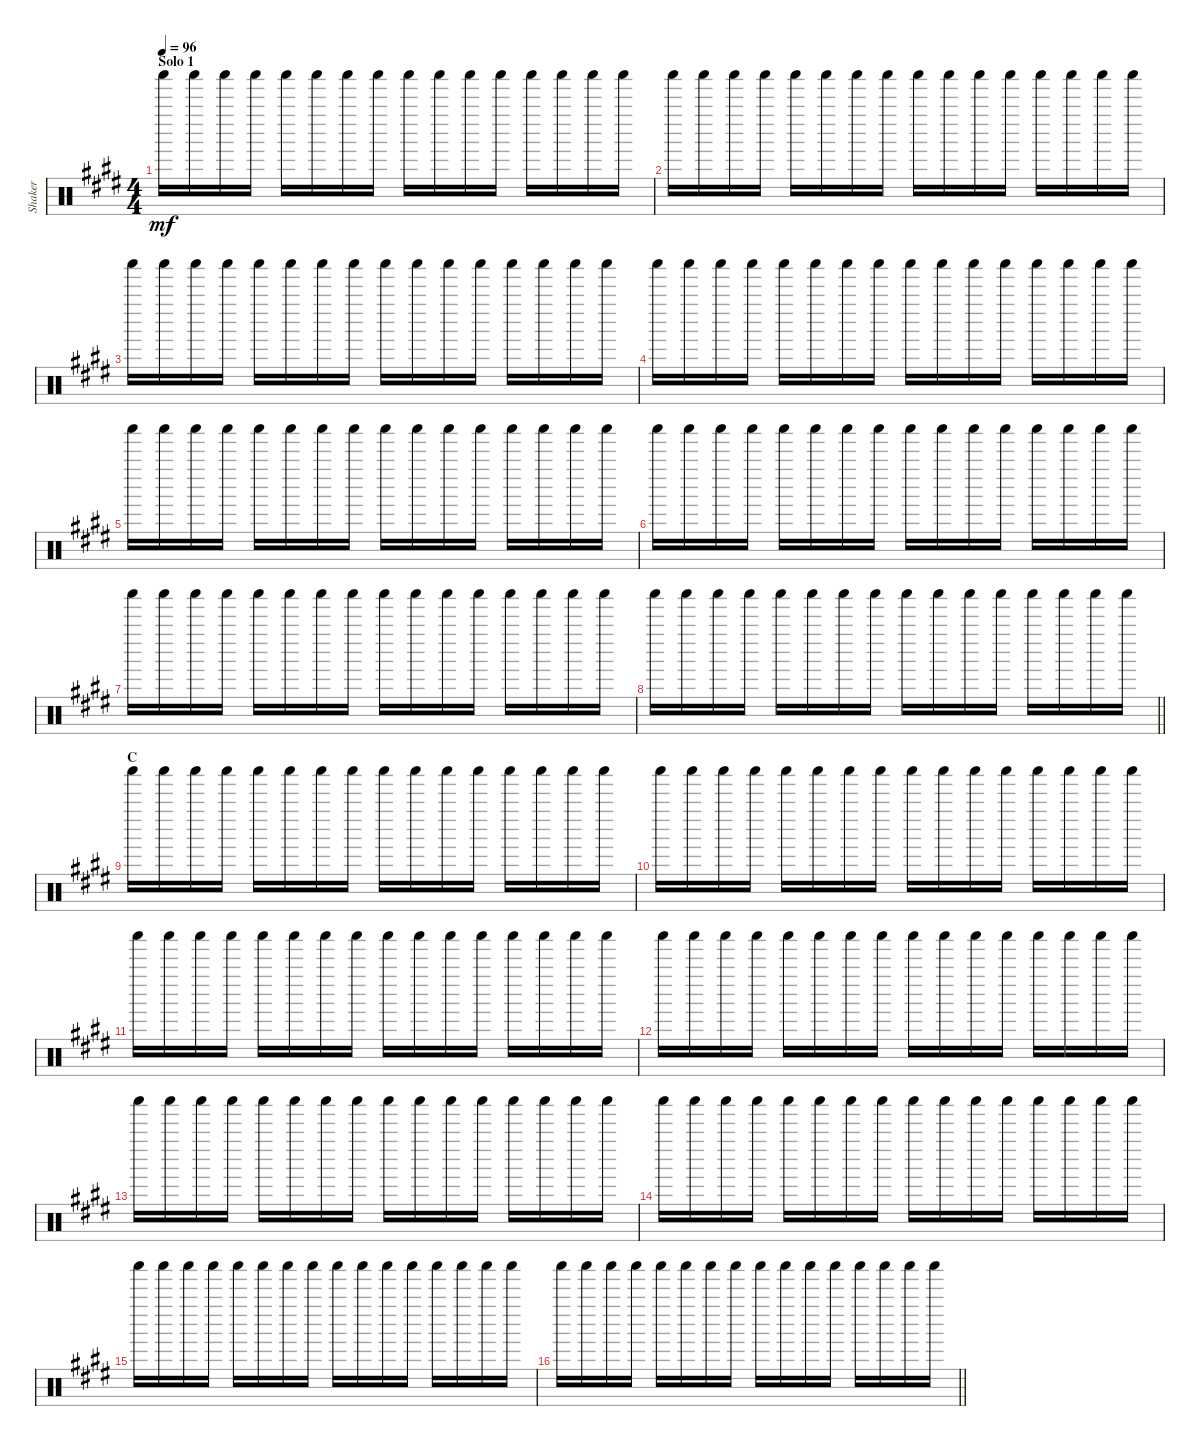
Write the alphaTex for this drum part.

\track ("Shaker" "Shaker") {instrument percussion}
\staff {score}
\articulation defaults
\ts (4 4)
\section ("" "Solo 1")
\tempo 96
\clef neutral
\ks e "Shaker (hit)".16{dy mf} "Shaker (hit)".16 "Shaker (hit)".16 "Shaker (hit)".16 "Shaker (hit)".16 "Shaker (hit)".16 "Shaker (hit)".16 "Shaker (hit)".16 "Shaker (hit)".16 "Shaker (hit)".16 "Shaker (hit)".16 "Shaker (hit)".16 "Shaker (hit)".16 "Shaker (hit)".16 "Shaker (hit)".16 "Shaker (hit)".16
|
"Shaker (hit)".16 "Shaker (hit)".16 "Shaker (hit)".16 "Shaker (hit)".16 "Shaker (hit)".16 "Shaker (hit)".16 "Shaker (hit)".16 "Shaker (hit)".16 "Shaker (hit)".16 "Shaker (hit)".16 "Shaker (hit)".16 "Shaker (hit)".16 "Shaker (hit)".16 "Shaker (hit)".16 "Shaker (hit)".16 "Shaker (hit)".16 |
"Shaker (hit)".16 "Shaker (hit)".16 "Shaker (hit)".16 "Shaker (hit)".16 "Shaker (hit)".16 "Shaker (hit)".16 "Shaker (hit)".16 "Shaker (hit)".16 "Shaker (hit)".16 "Shaker (hit)".16 "Shaker (hit)".16 "Shaker (hit)".16 "Shaker (hit)".16 "Shaker (hit)".16 "Shaker (hit)".16 "Shaker (hit)".16 |
"Shaker (hit)".16 "Shaker (hit)".16 "Shaker (hit)".16 "Shaker (hit)".16 "Shaker (hit)".16 "Shaker (hit)".16 "Shaker (hit)".16 "Shaker (hit)".16 "Shaker (hit)".16 "Shaker (hit)".16 "Shaker (hit)".16 "Shaker (hit)".16 "Shaker (hit)".16 "Shaker (hit)".16 "Shaker (hit)".16 "Shaker (hit)".16 |
"Shaker (hit)".16 "Shaker (hit)".16 "Shaker (hit)".16 "Shaker (hit)".16 "Shaker (hit)".16 "Shaker (hit)".16 "Shaker (hit)".16 "Shaker (hit)".16 "Shaker (hit)".16 "Shaker (hit)".16 "Shaker (hit)".16 "Shaker (hit)".16 "Shaker (hit)".16 "Shaker (hit)".16 "Shaker (hit)".16 "Shaker (hit)".16 |
"Shaker (hit)".16 "Shaker (hit)".16 "Shaker (hit)".16 "Shaker (hit)".16 "Shaker (hit)".16 "Shaker (hit)".16 "Shaker (hit)".16 "Shaker (hit)".16 "Shaker (hit)".16 "Shaker (hit)".16 "Shaker (hit)".16 "Shaker (hit)".16 "Shaker (hit)".16 "Shaker (hit)".16 "Shaker (hit)".16 "Shaker (hit)".16 |
"Shaker (hit)".16 "Shaker (hit)".16 "Shaker (hit)".16 "Shaker (hit)".16 "Shaker (hit)".16 "Shaker (hit)".16 "Shaker (hit)".16 "Shaker (hit)".16 "Shaker (hit)".16 "Shaker (hit)".16 "Shaker (hit)".16 "Shaker (hit)".16 "Shaker (hit)".16 "Shaker (hit)".16 "Shaker (hit)".16 "Shaker (hit)".16 |
\barLineRight lightlight "Shaker (hit)".16 "Shaker (hit)".16 "Shaker (hit)".16 "Shaker (hit)".16 "Shaker (hit)".16 "Shaker (hit)".16 "Shaker (hit)".16 "Shaker (hit)".16 "Shaker (hit)".16 "Shaker (hit)".16 "Shaker (hit)".16 "Shaker (hit)".16 "Shaker (hit)".16 "Shaker (hit)".16 "Shaker (hit)".16 "Shaker (hit)".16
|
\section ("" "C")
"Shaker (hit)".16 "Shaker (hit)".16 "Shaker (hit)".16 "Shaker (hit)".16 "Shaker (hit)".16 "Shaker (hit)".16 "Shaker (hit)".16 "Shaker (hit)".16 "Shaker (hit)".16 "Shaker (hit)".16 "Shaker (hit)".16 "Shaker (hit)".16 "Shaker (hit)".16 "Shaker (hit)".16 "Shaker (hit)".16 "Shaker (hit)".16 |
"Shaker (hit)".16 "Shaker (hit)".16 "Shaker (hit)".16 "Shaker (hit)".16 "Shaker (hit)".16 "Shaker (hit)".16 "Shaker (hit)".16 "Shaker (hit)".16 "Shaker (hit)".16 "Shaker (hit)".16 "Shaker (hit)".16 "Shaker (hit)".16 "Shaker (hit)".16 "Shaker (hit)".16 "Shaker (hit)".16 "Shaker (hit)".16 |
"Shaker (hit)".16 "Shaker (hit)".16 "Shaker (hit)".16 "Shaker (hit)".16 "Shaker (hit)".16 "Shaker (hit)".16 "Shaker (hit)".16 "Shaker (hit)".16 "Shaker (hit)".16 "Shaker (hit)".16 "Shaker (hit)".16 "Shaker (hit)".16 "Shaker (hit)".16 "Shaker (hit)".16 "Shaker (hit)".16 "Shaker (hit)".16 |
"Shaker (hit)".16 "Shaker (hit)".16 "Shaker (hit)".16 "Shaker (hit)".16 "Shaker (hit)".16 "Shaker (hit)".16 "Shaker (hit)".16 "Shaker (hit)".16 "Shaker (hit)".16 "Shaker (hit)".16 "Shaker (hit)".16 "Shaker (hit)".16 "Shaker (hit)".16 "Shaker (hit)".16 "Shaker (hit)".16 "Shaker (hit)".16 |
"Shaker (hit)".16 "Shaker (hit)".16 "Shaker (hit)".16 "Shaker (hit)".16 "Shaker (hit)".16 "Shaker (hit)".16 "Shaker (hit)".16 "Shaker (hit)".16 "Shaker (hit)".16 "Shaker (hit)".16 "Shaker (hit)".16 "Shaker (hit)".16 "Shaker (hit)".16 "Shaker (hit)".16 "Shaker (hit)".16 "Shaker (hit)".16 |
"Shaker (hit)".16 "Shaker (hit)".16 "Shaker (hit)".16 "Shaker (hit)".16 "Shaker (hit)".16 "Shaker (hit)".16 "Shaker (hit)".16 "Shaker (hit)".16 "Shaker (hit)".16 "Shaker (hit)".16 "Shaker (hit)".16 "Shaker (hit)".16 "Shaker (hit)".16 "Shaker (hit)".16 "Shaker (hit)".16 "Shaker (hit)".16 |
"Shaker (hit)".16 "Shaker (hit)".16 "Shaker (hit)".16 "Shaker (hit)".16 "Shaker (hit)".16 "Shaker (hit)".16 "Shaker (hit)".16 "Shaker (hit)".16 "Shaker (hit)".16 "Shaker (hit)".16 "Shaker (hit)".16 "Shaker (hit)".16 "Shaker (hit)".16 "Shaker (hit)".16 "Shaker (hit)".16 "Shaker (hit)".16 |
\barLineRight lightlight "Shaker (hit)".16 "Shaker (hit)".16 "Shaker (hit)".16 "Shaker (hit)".16 "Shaker (hit)".16 "Shaker (hit)".16 "Shaker (hit)".16 "Shaker (hit)".16 "Shaker (hit)".16 "Shaker (hit)".16 "Shaker (hit)".16 "Shaker (hit)".16 "Shaker (hit)".16 "Shaker (hit)".16 "Shaker (hit)".16 "Shaker (hit)".16
